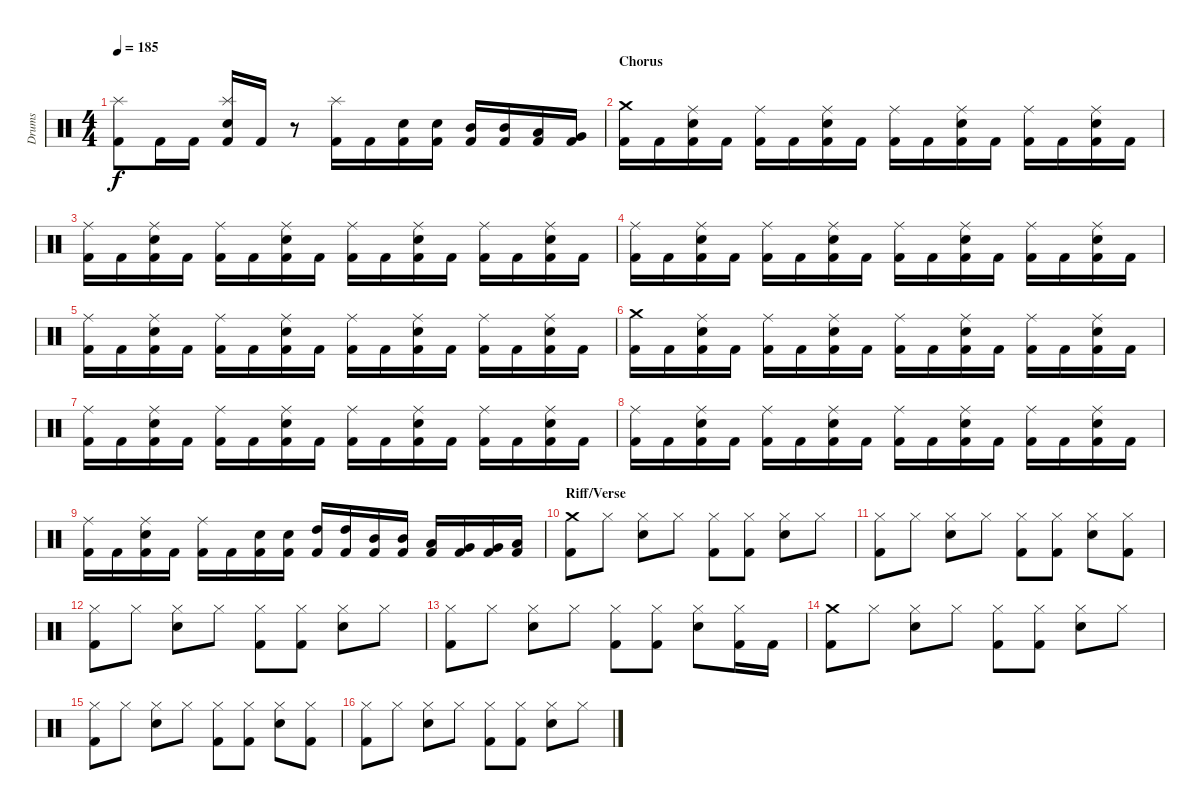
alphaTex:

\track ("Drums" "Drums") {instrument percussion}
\staff {score}
\articulation defaults
\ts (4 4)
\tempo 185
\clef neutral
\ks c
("Kick (hit) 2" "Splash (hit)").8{dy f} "Kick (hit) 2".16 "Kick (hit) 2".16 ("Kick (hit) 2" "Electric Snare (hit)" "Splash (hit)").16 "Kick (hit) 2".16 r.8 ("Kick (hit) 2" "Splash (hit)").16 "Kick (hit) 2".16 ("Kick (hit) 2" "Electric Snare (hit)").16 ("Kick (hit) 2" "Electric Snare (hit)").16 ("Kick (hit) 2" "Mid Tom (hit)").16 ("Kick (hit) 2" "Mid Tom (hit)").16 ("Kick (hit) 2" "Low Tom (hit)").16 ("Kick (hit) 2" "Very Low Tom (hit)").16 |
\section ("" "Chorus")
("Kick (hit) 2" "Crash medium (hit)").16 "Kick (hit) 2".16 ("Kick (hit) 2" "Electric Snare (hit)" "Ride (middle)").16 "Kick (hit) 2".16 ("Kick (hit) 2" "Ride (middle)").16 "Kick (hit) 2".16 ("Kick (hit) 2" "Electric Snare (hit)" "Ride (middle)").16 "Kick (hit) 2".16 ("Kick (hit) 2" "Ride (middle)").16 "Kick (hit) 2".16 ("Kick (hit) 2" "Electric Snare (hit)" "Ride (middle)").16 "Kick (hit) 2".16 ("Kick (hit) 2" "Ride (middle)").16 "Kick (hit) 2".16 ("Kick (hit) 2" "Electric Snare (hit)" "Ride (middle)").16 "Kick (hit) 2".16 |
("Kick (hit) 2" "Ride (middle)").16 "Kick (hit) 2".16 ("Kick (hit) 2" "Electric Snare (hit)" "Ride (middle)").16 "Kick (hit) 2".16 ("Kick (hit) 2" "Ride (middle)").16 "Kick (hit) 2".16 ("Kick (hit) 2" "Electric Snare (hit)" "Ride (middle)").16 "Kick (hit) 2".16 ("Kick (hit) 2" "Ride (middle)").16 "Kick (hit) 2".16 ("Kick (hit) 2" "Electric Snare (hit)" "Ride (middle)").16 "Kick (hit) 2".16 ("Kick (hit) 2" "Ride (middle)").16 "Kick (hit) 2".16 ("Kick (hit) 2" "Electric Snare (hit)" "Ride (middle)").16 "Kick (hit) 2".16 |
("Kick (hit) 2" "Ride (middle)").16 "Kick (hit) 2".16 ("Kick (hit) 2" "Electric Snare (hit)" "Ride (middle)").16 "Kick (hit) 2".16 ("Kick (hit) 2" "Ride (middle)").16 "Kick (hit) 2".16 ("Kick (hit) 2" "Electric Snare (hit)" "Ride (middle)").16 "Kick (hit) 2".16 ("Kick (hit) 2" "Ride (middle)").16 "Kick (hit) 2".16 ("Kick (hit) 2" "Electric Snare (hit)" "Ride (middle)").16 "Kick (hit) 2".16 ("Kick (hit) 2" "Ride (middle)").16 "Kick (hit) 2".16 ("Kick (hit) 2" "Electric Snare (hit)" "Ride (middle)").16 "Kick (hit) 2".16 |
("Kick (hit) 2" "Ride (middle)").16 "Kick (hit) 2".16 ("Kick (hit) 2" "Electric Snare (hit)" "Ride (middle)").16 "Kick (hit) 2".16 ("Kick (hit) 2" "Ride (middle)").16 "Kick (hit) 2".16 ("Kick (hit) 2" "Electric Snare (hit)" "Ride (middle)").16 "Kick (hit) 2".16 ("Kick (hit) 2" "Ride (middle)").16 "Kick (hit) 2".16 ("Kick (hit) 2" "Electric Snare (hit)" "Ride (middle)").16 "Kick (hit) 2".16 ("Kick (hit) 2" "Ride (middle)").16 "Kick (hit) 2".16 ("Kick (hit) 2" "Electric Snare (hit)" "Ride (middle)").16 "Kick (hit) 2".16 |
("Kick (hit) 2" "Crash medium (hit)").16 "Kick (hit) 2".16 ("Kick (hit) 2" "Electric Snare (hit)" "Ride (middle)").16 "Kick (hit) 2".16 ("Kick (hit) 2" "Ride (middle)").16 "Kick (hit) 2".16 ("Kick (hit) 2" "Electric Snare (hit)" "Ride (middle)").16 "Kick (hit) 2".16 ("Kick (hit) 2" "Ride (middle)").16 "Kick (hit) 2".16 ("Kick (hit) 2" "Electric Snare (hit)" "Ride (middle)").16 "Kick (hit) 2".16 ("Kick (hit) 2" "Ride (middle)").16 "Kick (hit) 2".16 ("Kick (hit) 2" "Electric Snare (hit)" "Ride (middle)").16 "Kick (hit) 2".16 |
("Kick (hit) 2" "Ride (middle)").16 "Kick (hit) 2".16 ("Kick (hit) 2" "Electric Snare (hit)" "Ride (middle)").16 "Kick (hit) 2".16 ("Kick (hit) 2" "Ride (middle)").16 "Kick (hit) 2".16 ("Kick (hit) 2" "Electric Snare (hit)" "Ride (middle)").16 "Kick (hit) 2".16 ("Kick (hit) 2" "Ride (middle)").16 "Kick (hit) 2".16 ("Kick (hit) 2" "Electric Snare (hit)" "Ride (middle)").16 "Kick (hit) 2".16 ("Kick (hit) 2" "Ride (middle)").16 "Kick (hit) 2".16 ("Kick (hit) 2" "Electric Snare (hit)" "Ride (middle)").16 "Kick (hit) 2".16 |
("Kick (hit) 2" "Ride (middle)").16 "Kick (hit) 2".16 ("Kick (hit) 2" "Electric Snare (hit)" "Ride (middle)").16 "Kick (hit) 2".16 ("Kick (hit) 2" "Ride (middle)").16 "Kick (hit) 2".16 ("Kick (hit) 2" "Electric Snare (hit)" "Ride (middle)").16 "Kick (hit) 2".16 ("Kick (hit) 2" "Ride (middle)").16 "Kick (hit) 2".16 ("Kick (hit) 2" "Electric Snare (hit)" "Ride (middle)").16 "Kick (hit) 2".16 ("Kick (hit) 2" "Ride (middle)").16 "Kick (hit) 2".16 ("Kick (hit) 2" "Electric Snare (hit)" "Ride (middle)").16 "Kick (hit) 2".16 |
("Kick (hit) 2" "Ride (middle)").16 "Kick (hit) 2".16 ("Kick (hit) 2" "Electric Snare (hit)" "Ride (middle)").16 "Kick (hit) 2".16 ("Kick (hit) 2" "Ride (middle)").16 "Kick (hit) 2".16 ("Kick (hit) 2" "Electric Snare (hit)").16 ("Kick (hit) 2" "Electric Snare (hit)").16 ("Kick (hit) 2" "High Tom (hit)").16 ("Kick (hit) 2" "High Tom (hit)").16 ("Kick (hit) 2" "Mid Tom (hit)").16 ("Kick (hit) 2" "Mid Tom (hit)").16 ("Kick (hit) 2" "Low Tom (hit)").16 ("Kick (hit) 2" "Very Low Tom (hit)").16 ("Kick (hit) 2" "Very Low Tom (hit)").16 ("Kick (hit) 2" "Low Floor Tom (hit)").16 |
\section ("" "Riff/Verse")
("Kick (hit) 2" "Crash medium (hit)").8 "Hi-Hat (closed)".8 ("Electric Snare (hit)" "Hi-Hat (closed)").8 "Hi-Hat (closed)".8 ("Kick (hit) 2" "Hi-Hat (closed)").8 ("Kick (hit) 2" "Hi-Hat (closed)").8 ("Electric Snare (hit)" "Hi-Hat (closed)").8 "Hi-Hat (closed)".8 |
("Kick (hit) 2" "Hi-Hat (closed)").8 "Hi-Hat (closed)".8 ("Electric Snare (hit)" "Hi-Hat (closed)").8 "Hi-Hat (closed)".8 ("Kick (hit) 2" "Hi-Hat (closed)").8 ("Kick (hit) 2" "Hi-Hat (closed)").8 ("Electric Snare (hit)" "Hi-Hat (closed)").8 ("Kick (hit) 2" "Hi-Hat (closed)").8 |
("Kick (hit) 2" "Hi-Hat (closed)").8 "Hi-Hat (closed)".8 ("Electric Snare (hit)" "Hi-Hat (closed)").8 "Hi-Hat (closed)".8 ("Kick (hit) 2" "Hi-Hat (closed)").8 ("Kick (hit) 2" "Hi-Hat (closed)").8 ("Electric Snare (hit)" "Hi-Hat (closed)").8 "Hi-Hat (closed)".8 |
("Kick (hit) 2" "Hi-Hat (closed)").8 "Hi-Hat (closed)".8 ("Electric Snare (hit)" "Hi-Hat (closed)").8 "Hi-Hat (closed)".8 ("Kick (hit) 2" "Hi-Hat (closed)").8 ("Kick (hit) 2" "Hi-Hat (closed)").8 ("Electric Snare (hit)" "Hi-Hat (closed)").8 ("Kick (hit) 2" "Hi-Hat (closed)").16 "Kick (hit) 2".16 |
("Kick (hit) 2" "Crash medium (hit)").8 "Hi-Hat (closed)".8 ("Electric Snare (hit)" "Hi-Hat (closed)").8 "Hi-Hat (closed)".8 ("Kick (hit) 2" "Hi-Hat (closed)").8 ("Kick (hit) 2" "Hi-Hat (closed)").8 ("Electric Snare (hit)" "Hi-Hat (closed)").8 "Hi-Hat (closed)".8 |
("Kick (hit) 2" "Hi-Hat (closed)").8 "Hi-Hat (closed)".8 ("Electric Snare (hit)" "Hi-Hat (closed)").8 "Hi-Hat (closed)".8 ("Kick (hit) 2" "Hi-Hat (closed)").8 ("Kick (hit) 2" "Hi-Hat (closed)").8 ("Electric Snare (hit)" "Hi-Hat (closed)").8 ("Kick (hit) 2" "Hi-Hat (closed)").8 |
("Kick (hit) 2" "Hi-Hat (closed)").8 "Hi-Hat (closed)".8 ("Electric Snare (hit)" "Hi-Hat (closed)").8 "Hi-Hat (closed)".8 ("Kick (hit) 2" "Hi-Hat (closed)").8 ("Kick (hit) 2" "Hi-Hat (closed)").8 ("Electric Snare (hit)" "Hi-Hat (closed)").8 "Hi-Hat (closed)".8
